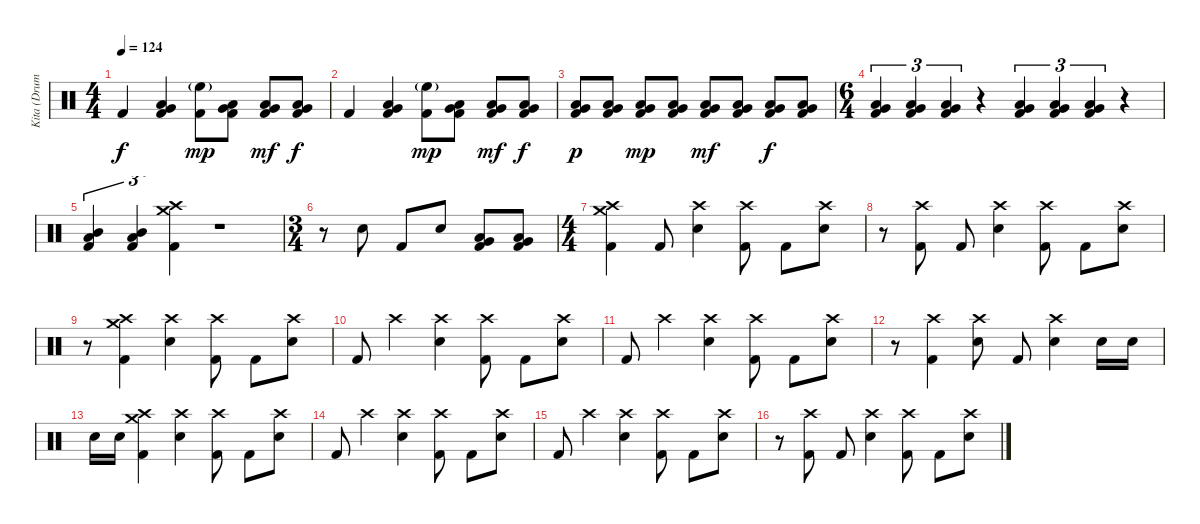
\track ("Kita (Drums)" "Kita (Drum") {instrument percussion}
\staff {score}
\articulation defaults
\ts (4 4)
\tempo 124
\clef neutral
\ks c "Kick (hit) 2".4{dy f}
("Very Low Tom (hit)" "Low Tom (hit)" "Kick (hit) 2").4 ("High Floor Tom (hit)"{g} "Kick (hit) 2").8{dy mp} ("Very Low Tom (hit)" "Low Tom (hit)" "Kick (hit) 2").8 ("Very Low Tom (hit)" "Low Tom (hit)" "Kick (hit) 2").8{dy mf} ("Low Floor Tom (hit)" "Very Low Tom (hit)" "Kick (hit) 2").8{dy f} |
"Kick (hit) 2".4 ("Very Low Tom (hit)" "Low Tom (hit)" "Kick (hit) 2").4 ("High Floor Tom (hit)"{g} "Kick (hit) 2").8{dy mp} ("Very Low Tom (hit)" "Low Tom (hit)" "Kick (hit) 2").8 ("Very Low Tom (hit)" "Low Tom (hit)" "Kick (hit) 2").8{dy mf} ("Low Floor Tom (hit)" "Very Low Tom (hit)" "Kick (hit) 2").8{dy f} |
("Low Floor Tom (hit)" "Very Low Tom (hit)" "Kick (hit) 2").8{dy p} ("Low Floor Tom (hit)" "Very Low Tom (hit)" "Kick (hit) 2").8 ("Low Floor Tom (hit)" "Very Low Tom (hit)" "Kick (hit) 2").8{dy mp} ("Low Floor Tom (hit)" "Very Low Tom (hit)" "Kick (hit) 2").8 ("Low Floor Tom (hit)" "Very Low Tom (hit)" "Kick (hit) 2").8{dy mf} ("Low Floor Tom (hit)" "Very Low Tom (hit)" "Kick (hit) 2").8 ("Low Floor Tom (hit)" "Very Low Tom (hit)" "Kick (hit) 2").8{dy f} ("Low Floor Tom (hit)" "Very Low Tom (hit)" "Kick (hit) 2").8 |
\ts (6 4)
("Low Floor Tom (hit)" "Very Low Tom (hit)" "Kick (hit) 2").4{tu (3 2)} ("Low Floor Tom (hit)" "Very Low Tom (hit)" "Kick (hit) 2").4{tu (3 2)} ("Low Floor Tom (hit)" "Very Low Tom (hit)" "Kick (hit) 2").4{tu (3 2)} r.4 ("Very Low Tom (hit)" "Low Tom (hit)" "Kick (hit) 2").4{tu (3 2)} ("Very Low Tom (hit)" "Low Tom (hit)" "Kick (hit) 2").4{tu (3 2)} ("Very Low Tom (hit)" "Low Tom (hit)" "Kick (hit) 2").4{tu (3 2)} r.4 |
("Low Tom (hit)" "Mid Tom (hit)" "Kick (hit) 2").4{tu (3 2)} ("Low Tom (hit)" "Mid Tom (hit)" "Kick (hit) 2").4{tu (3 2)} ("Crash medium (hit)" "Crash high (hit)" "Kick (hit) 2").4{tu (3 2)} r.1 |
\ts (3 4)
r.8 "Electric Snare (hit)".8 "Kick (hit) 2".8 "Electric Snare (hit)".8 ("Low Floor Tom (hit)" "Very Low Tom (hit)" "Kick (hit) 2").8 ("Low Floor Tom (hit)" "Very Low Tom (hit)" "Kick (hit) 2").8 |
\ts (4 4)
("Crash medium (hit)" "Crash high (hit)" "Kick (hit) 2").4 "Kick (hit) 2".8 ("Crash high (hit)" "Electric Snare (hit)").4 ("Crash high (hit)" "Kick (hit) 2").8 "Kick (hit) 2".8 ("Crash high (hit)" "Electric Snare (hit)").8 |
r.8 ("Crash high (hit)" "Kick (hit) 2").8 "Kick (hit) 2".8 ("Crash high (hit)" "Electric Snare (hit)").4 ("Crash high (hit)" "Kick (hit) 2").8 "Kick (hit) 2".8 ("Crash high (hit)" "Electric Snare (hit)").8 |
r.8 ("Crash medium (hit)" "Crash high (hit)" "Kick (hit) 2").4 ("Crash high (hit)" "Electric Snare (hit)").4 ("Crash high (hit)" "Kick (hit) 2").8 "Kick (hit) 2".8 ("Crash high (hit)" "Electric Snare (hit)").8 |
"Kick (hit) 2".8 "Crash high (hit)".4 ("Crash high (hit)" "Electric Snare (hit)").4 ("Crash high (hit)" "Kick (hit) 2").8 "Kick (hit) 2".8 ("Crash high (hit)" "Electric Snare (hit)").8 |
"Kick (hit) 2".8 "Crash high (hit)".4 ("Crash high (hit)" "Electric Snare (hit)").4 ("Crash high (hit)" "Kick (hit) 2").8 "Kick (hit) 2".8 ("Crash high (hit)" "Electric Snare (hit)").8 |
r.8 ("Crash high (hit)" "Kick (hit) 2").4 ("Crash high (hit)" "Electric Snare (hit)").8 "Kick (hit) 2".8 ("Crash high (hit)" "Electric Snare (hit)").4 "Electric Snare (hit)".16 "Electric Snare (hit)".16 |
"Electric Snare (hit)".16 "Electric Snare (hit)".16 ("Crash medium (hit)" "Crash high (hit)" "Kick (hit) 2").4 ("Crash high (hit)" "Electric Snare (hit)").4 ("Crash high (hit)" "Kick (hit) 2").8 "Kick (hit) 2".8 ("Crash high (hit)" "Electric Snare (hit)").8 |
"Kick (hit) 2".8 "Crash high (hit)".4 ("Crash high (hit)" "Electric Snare (hit)").4 ("Crash high (hit)" "Kick (hit) 2").8 "Kick (hit) 2".8 ("Crash high (hit)" "Electric Snare (hit)").8 |
"Kick (hit) 2".8 "Crash high (hit)".4 ("Crash high (hit)" "Electric Snare (hit)").4 ("Crash high (hit)" "Kick (hit) 2").8 "Kick (hit) 2".8 ("Crash high (hit)" "Electric Snare (hit)").8 |
r.8 ("Crash high (hit)" "Kick (hit) 2").8 "Kick (hit) 2".8 ("Crash high (hit)" "Electric Snare (hit)").4 ("Crash high (hit)" "Kick (hit) 2").8 "Kick (hit) 2".8 ("Crash high (hit)" "Electric Snare (hit)").8
